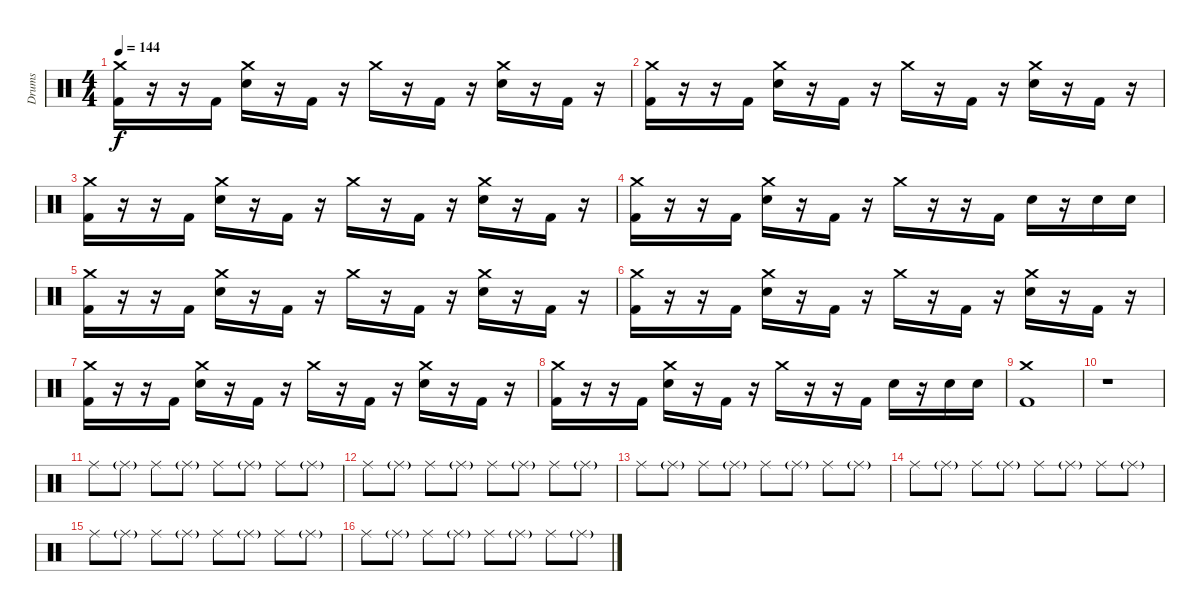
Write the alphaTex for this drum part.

\track ("Drums" "Drums") {instrument percussion}
\staff {score}
\articulation defaults
\ts (4 4)
\tempo 144
\clef neutral
\ks c
("Crash medium (hit)" "Kick (hit) 2").16{dy f} r.16 r.16 "Kick (hit) 2".16 ("Crash medium (hit)" "Electric Snare (hit)").16 r.16 "Kick (hit) 2".16 r.16 "Crash medium (hit)".16 r.16 "Kick (hit) 2".16 r.16 ("Crash medium (hit)" "Electric Snare (hit)").16 r.16 "Kick (hit) 2".16 r.16 |
("Crash medium (hit)" "Kick (hit) 2").16 r.16 r.16 "Kick (hit) 2".16 ("Crash medium (hit)" "Electric Snare (hit)").16 r.16 "Kick (hit) 2".16 r.16 "Crash medium (hit)".16 r.16 "Kick (hit) 2".16 r.16 ("Crash medium (hit)" "Electric Snare (hit)").16 r.16 "Kick (hit) 2".16 r.16 |
("Crash medium (hit)" "Kick (hit) 2").16 r.16 r.16 "Kick (hit) 2".16 ("Crash medium (hit)" "Electric Snare (hit)").16 r.16 "Kick (hit) 2".16 r.16 "Crash medium (hit)".16 r.16 "Kick (hit) 2".16 r.16 ("Crash medium (hit)" "Electric Snare (hit)").16 r.16 "Kick (hit) 2".16 r.16 |
("Crash medium (hit)" "Kick (hit) 2").16 r.16 r.16 "Kick (hit) 2".16 ("Crash medium (hit)" "Electric Snare (hit)").16 r.16 "Kick (hit) 2".16 r.16 "Crash medium (hit)".16 r.16 r.16 "Kick (hit) 2".16 "Electric Snare (hit)".16 r.16 "Electric Snare (hit)".16 "Electric Snare (hit)".16 |
("Crash medium (hit)" "Kick (hit) 2").16 r.16 r.16 "Kick (hit) 2".16 ("Crash medium (hit)" "Electric Snare (hit)").16 r.16 "Kick (hit) 2".16 r.16 "Crash medium (hit)".16 r.16 "Kick (hit) 2".16 r.16 ("Crash medium (hit)" "Electric Snare (hit)").16 r.16 "Kick (hit) 2".16 r.16 |
("Crash medium (hit)" "Kick (hit) 2").16 r.16 r.16 "Kick (hit) 2".16 ("Crash medium (hit)" "Electric Snare (hit)").16 r.16 "Kick (hit) 2".16 r.16 "Crash medium (hit)".16 r.16 "Kick (hit) 2".16 r.16 ("Crash medium (hit)" "Electric Snare (hit)").16 r.16 "Kick (hit) 2".16 r.16 |
("Crash medium (hit)" "Kick (hit) 2").16 r.16 r.16 "Kick (hit) 2".16 ("Crash medium (hit)" "Electric Snare (hit)").16 r.16 "Kick (hit) 2".16 r.16 "Crash medium (hit)".16 r.16 "Kick (hit) 2".16 r.16 ("Crash medium (hit)" "Electric Snare (hit)").16 r.16 "Kick (hit) 2".16 r.16 |
("Crash medium (hit)" "Kick (hit) 2").16 r.16 r.16 "Kick (hit) 2".16 ("Crash medium (hit)" "Electric Snare (hit)").16 r.16 "Kick (hit) 2".16 r.16 "Crash medium (hit)".16 r.16 r.16 "Kick (hit) 2".16 "Electric Snare (hit)".16 r.16 "Electric Snare (hit)".16 "Electric Snare (hit)".16 |
("Crash medium (hit)" "Kick (hit) 2").1 |
r.1 |
"Ride (middle)".8 "Ride (middle)"{g}.8 "Ride (middle)".8 "Ride (middle)"{g}.8 "Ride (middle)".8 "Ride (middle)"{g}.8 "Ride (middle)".8 "Ride (middle)"{g}.8 |
"Ride (middle)".8 "Ride (middle)"{g}.8 "Ride (middle)".8 "Ride (middle)"{g}.8 "Ride (middle)".8 "Ride (middle)"{g}.8 "Ride (middle)".8 "Ride (middle)"{g}.8 |
"Ride (middle)".8 "Ride (middle)"{g}.8 "Ride (middle)".8 "Ride (middle)"{g}.8 "Ride (middle)".8 "Ride (middle)"{g}.8 "Ride (middle)".8 "Ride (middle)"{g}.8 |
"Ride (middle)".8 "Ride (middle)"{g}.8 "Ride (middle)".8 "Ride (middle)"{g}.8 "Ride (middle)".8 "Ride (middle)"{g}.8 "Ride (middle)".8 "Ride (middle)"{g}.8 |
"Ride (middle)".8 "Ride (middle)"{g}.8 "Ride (middle)".8 "Ride (middle)"{g}.8 "Ride (middle)".8 "Ride (middle)"{g}.8 "Ride (middle)".8 "Ride (middle)"{g}.8 |
"Ride (middle)".8 "Ride (middle)"{g}.8 "Ride (middle)".8 "Ride (middle)"{g}.8 "Ride (middle)".8 "Ride (middle)"{g}.8 "Ride (middle)".8 "Ride (middle)"{g}.8
